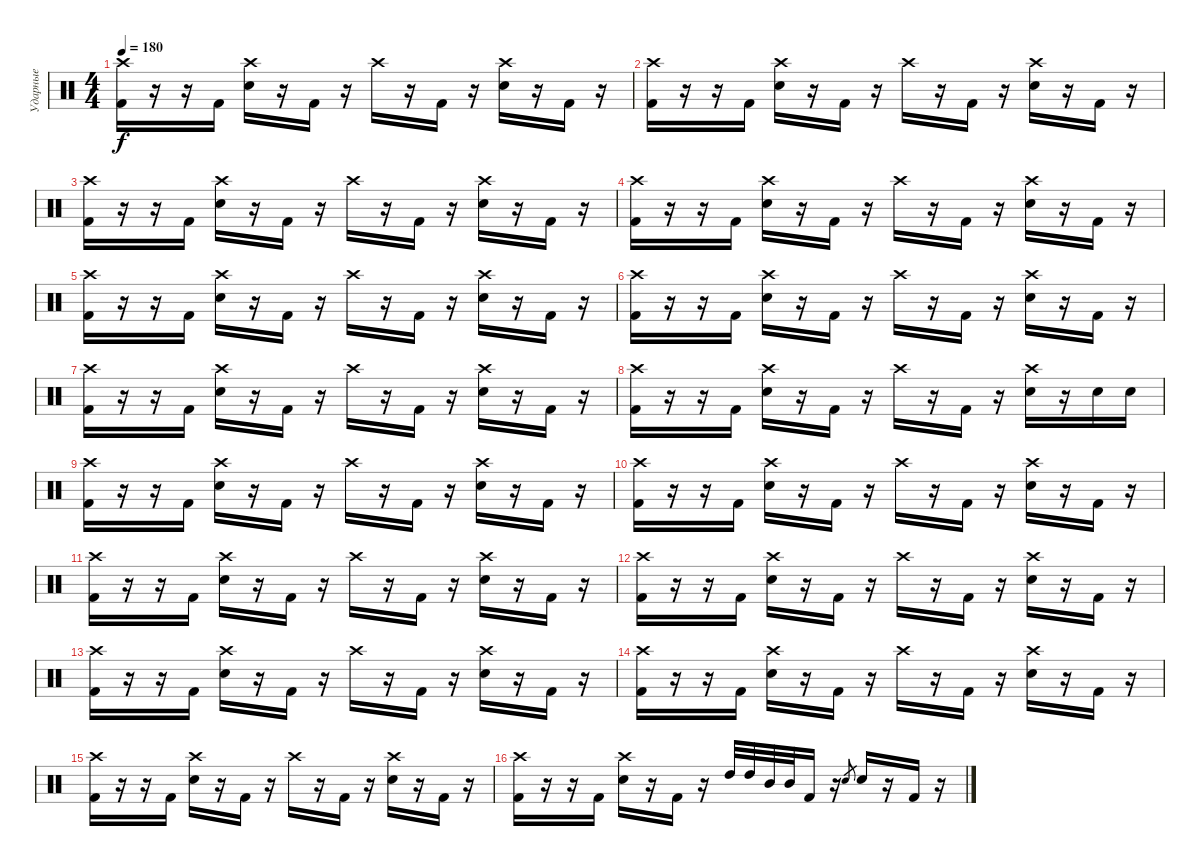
\track ("Ударные" "Ударные") {instrument percussion}
\staff {score}
\articulation defaults
\ts (4 4)
\tempo 180
\clef neutral
\ks c
("Crash high (hit)" "Kick (hit) 2").16{dy f} r.16 r.16 "Kick (hit) 2".16 ("Crash high (hit)" "Electric Snare (hit)").16 r.16 "Kick (hit) 2".16 r.16 "Crash high (hit)".16 r.16 "Kick (hit) 2".16 r.16 ("Crash high (hit)" "Electric Snare (hit)").16 r.16 "Kick (hit) 2".16 r.16 |
("Crash high (hit)" "Kick (hit) 2").16 r.16 r.16 "Kick (hit) 2".16 ("Crash high (hit)" "Electric Snare (hit)").16 r.16 "Kick (hit) 2".16 r.16 "Crash high (hit)".16 r.16 "Kick (hit) 2".16 r.16 ("Crash high (hit)" "Electric Snare (hit)").16 r.16 "Kick (hit) 2".16 r.16 |
("Crash high (hit)" "Kick (hit) 2").16 r.16 r.16 "Kick (hit) 2".16 ("Crash high (hit)" "Electric Snare (hit)").16 r.16 "Kick (hit) 2".16 r.16 "Crash high (hit)".16 r.16 "Kick (hit) 2".16 r.16 ("Crash high (hit)" "Electric Snare (hit)").16 r.16 "Kick (hit) 2".16 r.16 |
("Crash high (hit)" "Kick (hit) 2").16 r.16 r.16 "Kick (hit) 2".16 ("Crash high (hit)" "Electric Snare (hit)").16 r.16 "Kick (hit) 2".16 r.16 "Crash high (hit)".16 r.16 "Kick (hit) 2".16 r.16 ("Crash high (hit)" "Electric Snare (hit)").16 r.16 "Kick (hit) 2".16 r.16 |
("Crash high (hit)" "Kick (hit) 2").16 r.16 r.16 "Kick (hit) 2".16 ("Crash high (hit)" "Electric Snare (hit)").16 r.16 "Kick (hit) 2".16 r.16 "Crash high (hit)".16 r.16 "Kick (hit) 2".16 r.16 ("Crash high (hit)" "Electric Snare (hit)").16 r.16 "Kick (hit) 2".16 r.16 |
("Crash high (hit)" "Kick (hit) 2").16 r.16 r.16 "Kick (hit) 2".16 ("Crash high (hit)" "Electric Snare (hit)").16 r.16 "Kick (hit) 2".16 r.16 "Crash high (hit)".16 r.16 "Kick (hit) 2".16 r.16 ("Crash high (hit)" "Electric Snare (hit)").16 r.16 "Kick (hit) 2".16 r.16 |
("Crash high (hit)" "Kick (hit) 2").16 r.16 r.16 "Kick (hit) 2".16 ("Crash high (hit)" "Electric Snare (hit)").16 r.16 "Kick (hit) 2".16 r.16 "Crash high (hit)".16 r.16 "Kick (hit) 2".16 r.16 ("Crash high (hit)" "Electric Snare (hit)").16 r.16 "Kick (hit) 2".16 r.16 |
("Crash high (hit)" "Kick (hit) 2").16 r.16 r.16 "Kick (hit) 2".16 ("Crash high (hit)" "Electric Snare (hit)").16 r.16 "Kick (hit) 2".16 r.16 "Crash high (hit)".16 r.16 "Kick (hit) 2".16 r.16 ("Crash high (hit)" "Electric Snare (hit)").16 r.16 "Electric Snare (hit)".16 "Electric Snare (hit)".16 |
("Crash high (hit)" "Kick (hit) 2").16 r.16 r.16 "Kick (hit) 2".16 ("Crash high (hit)" "Electric Snare (hit)").16 r.16 "Kick (hit) 2".16 r.16 "Crash high (hit)".16 r.16 "Kick (hit) 2".16 r.16 ("Crash high (hit)" "Electric Snare (hit)").16 r.16 "Kick (hit) 2".16 r.16 |
("Crash high (hit)" "Kick (hit) 2").16 r.16 r.16 "Kick (hit) 2".16 ("Crash high (hit)" "Electric Snare (hit)").16 r.16 "Kick (hit) 2".16 r.16 "Crash high (hit)".16 r.16 "Kick (hit) 2".16 r.16 ("Crash high (hit)" "Electric Snare (hit)").16 r.16 "Kick (hit) 2".16 r.16 |
("Crash high (hit)" "Kick (hit) 2").16 r.16 r.16 "Kick (hit) 2".16 ("Crash high (hit)" "Electric Snare (hit)").16 r.16 "Kick (hit) 2".16 r.16 "Crash high (hit)".16 r.16 "Kick (hit) 2".16 r.16 ("Crash high (hit)" "Electric Snare (hit)").16 r.16 "Kick (hit) 2".16 r.16 |
("Crash high (hit)" "Kick (hit) 2").16 r.16 r.16 "Kick (hit) 2".16 ("Crash high (hit)" "Electric Snare (hit)").16 r.16 "Kick (hit) 2".16 r.16 "Crash high (hit)".16 r.16 "Kick (hit) 2".16 r.16 ("Crash high (hit)" "Electric Snare (hit)").16 r.16 "Kick (hit) 2".16 r.16 |
("Crash high (hit)" "Kick (hit) 2").16 r.16 r.16 "Kick (hit) 2".16 ("Crash high (hit)" "Electric Snare (hit)").16 r.16 "Kick (hit) 2".16 r.16 "Crash high (hit)".16 r.16 "Kick (hit) 2".16 r.16 ("Crash high (hit)" "Electric Snare (hit)").16 r.16 "Kick (hit) 2".16 r.16 |
("Crash high (hit)" "Kick (hit) 2").16 r.16 r.16 "Kick (hit) 2".16 ("Crash high (hit)" "Electric Snare (hit)").16 r.16 "Kick (hit) 2".16 r.16 "Crash high (hit)".16 r.16 "Kick (hit) 2".16 r.16 ("Crash high (hit)" "Electric Snare (hit)").16 r.16 "Kick (hit) 2".16 r.16 |
("Crash high (hit)" "Kick (hit) 2").16 r.16 r.16 "Kick (hit) 2".16 ("Crash high (hit)" "Electric Snare (hit)").16 r.16 "Kick (hit) 2".16 r.16 "Crash high (hit)".16 r.16 "Kick (hit) 2".16 r.16 ("Crash high (hit)" "Electric Snare (hit)").16 r.16 "Kick (hit) 2".16 r.16 |
("Crash high (hit)" "Kick (hit) 2").16 r.16 r.16 "Kick (hit) 2".16 ("Crash high (hit)" "Electric Snare (hit)").16 r.16 "Kick (hit) 2".16 r.16 "High Tom (hit)".32 "High Tom (hit)".32 "Mid Tom (hit)".32 "Mid Tom (hit)".32 "Kick (hit) 2".16 r.16 "Electric Snare (hit)".8{gr} "Electric Snare (hit)".16 r.16 "Kick (hit) 2".16 r.16
